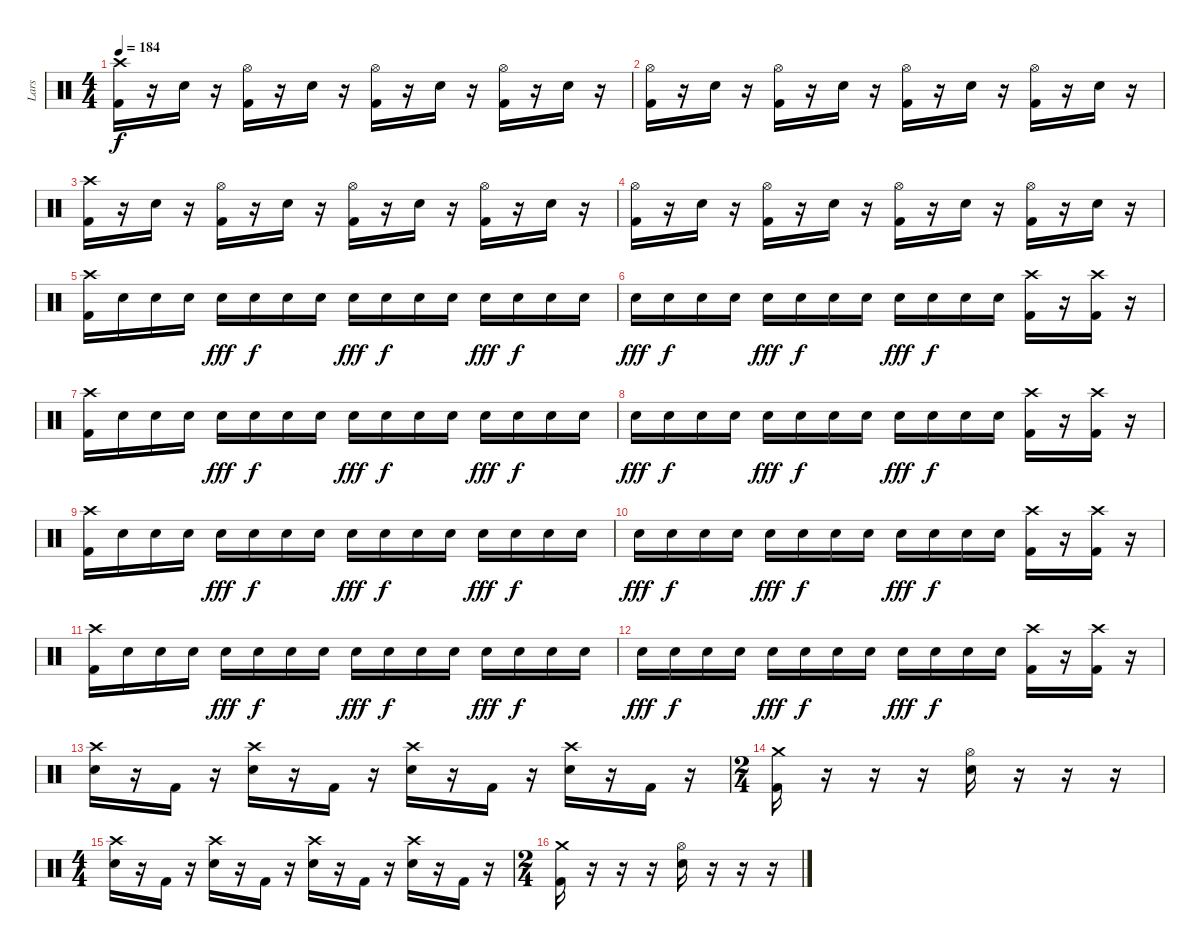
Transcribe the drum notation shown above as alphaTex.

\track ("Lars" "Lars") {instrument percussion}
\staff {score}
\articulation defaults
\ts (4 4)
\tempo 184
\clef neutral
\ks c
("Crash high (hit)" "Kick (hit) 2").16{dy f volume 10} r.16 "Electric Snare (hit)".16 r.16 ("Hi-Hat (open)" "Kick (hit) 2").16 r.16 "Electric Snare (hit)".16 r.16 ("Hi-Hat (open)" "Kick (hit) 2").16 r.16 "Electric Snare (hit)".16 r.16 ("Hi-Hat (open)" "Kick (hit) 2").16 r.16 "Electric Snare (hit)".16 r.16 |
("Hi-Hat (open)" "Kick (hit) 2").16 r.16 "Electric Snare (hit)".16 r.16 ("Hi-Hat (open)" "Kick (hit) 2").16 r.16 "Electric Snare (hit)".16 r.16 ("Hi-Hat (open)" "Kick (hit) 2").16 r.16 "Electric Snare (hit)".16 r.16 ("Hi-Hat (open)" "Kick (hit) 2").16 r.16 "Electric Snare (hit)".16 r.16 |
("Crash high (hit)" "Kick (hit) 2").16 r.16 "Electric Snare (hit)".16 r.16 ("Hi-Hat (open)" "Kick (hit) 2").16 r.16 "Electric Snare (hit)".16 r.16 ("Hi-Hat (open)" "Kick (hit) 2").16 r.16 "Electric Snare (hit)".16 r.16 ("Hi-Hat (open)" "Kick (hit) 2").16 r.16 "Electric Snare (hit)".16 r.16 |
("Hi-Hat (open)" "Kick (hit) 2").16 r.16 "Electric Snare (hit)".16 r.16 ("Hi-Hat (open)" "Kick (hit) 2").16 r.16 "Electric Snare (hit)".16 r.16 ("Hi-Hat (open)" "Kick (hit) 2").16 r.16 "Electric Snare (hit)".16 r.16 ("Hi-Hat (open)" "Kick (hit) 2").16 r.16 "Electric Snare (hit)".16 r.16 |
("Crash high (hit)" "Kick (hit) 2").16 "Electric Snare (hit)".16 "Electric Snare (hit)".16 "Electric Snare (hit)".16 "Electric Snare (hit)".16{dy fff} "Electric Snare (hit)".16{dy f} "Electric Snare (hit)".16 "Electric Snare (hit)".16 "Electric Snare (hit)".16{dy fff} "Electric Snare (hit)".16{dy f} "Electric Snare (hit)".16 "Electric Snare (hit)".16 "Electric Snare (hit)".16{dy fff} "Electric Snare (hit)".16{dy f} "Electric Snare (hit)".16 "Electric Snare (hit)".16 |
"Electric Snare (hit)".16{dy fff} "Electric Snare (hit)".16{dy f} "Electric Snare (hit)".16 "Electric Snare (hit)".16 "Electric Snare (hit)".16{dy fff} "Electric Snare (hit)".16{dy f} "Electric Snare (hit)".16 "Electric Snare (hit)".16 "Electric Snare (hit)".16{dy fff} "Electric Snare (hit)".16{dy f} "Electric Snare (hit)".16 "Electric Snare (hit)".16 ("Crash high (hit)" "Kick (hit) 2").16 r.16 ("Crash high (hit)" "Kick (hit) 2").16 r.16 |
("Crash high (hit)" "Kick (hit) 2").16 "Electric Snare (hit)".16 "Electric Snare (hit)".16 "Electric Snare (hit)".16 "Electric Snare (hit)".16{dy fff} "Electric Snare (hit)".16{dy f} "Electric Snare (hit)".16 "Electric Snare (hit)".16 "Electric Snare (hit)".16{dy fff} "Electric Snare (hit)".16{dy f} "Electric Snare (hit)".16 "Electric Snare (hit)".16 "Electric Snare (hit)".16{dy fff} "Electric Snare (hit)".16{dy f} "Electric Snare (hit)".16 "Electric Snare (hit)".16 |
"Electric Snare (hit)".16{dy fff} "Electric Snare (hit)".16{dy f} "Electric Snare (hit)".16 "Electric Snare (hit)".16 "Electric Snare (hit)".16{dy fff} "Electric Snare (hit)".16{dy f} "Electric Snare (hit)".16 "Electric Snare (hit)".16 "Electric Snare (hit)".16{dy fff} "Electric Snare (hit)".16{dy f} "Electric Snare (hit)".16 "Electric Snare (hit)".16 ("Crash high (hit)" "Kick (hit) 2").16 r.16 ("Crash high (hit)" "Kick (hit) 2").16 r.16 |
("Crash high (hit)" "Kick (hit) 2").16 "Electric Snare (hit)".16 "Electric Snare (hit)".16 "Electric Snare (hit)".16 "Electric Snare (hit)".16{dy fff} "Electric Snare (hit)".16{dy f} "Electric Snare (hit)".16 "Electric Snare (hit)".16 "Electric Snare (hit)".16{dy fff} "Electric Snare (hit)".16{dy f} "Electric Snare (hit)".16 "Electric Snare (hit)".16 "Electric Snare (hit)".16{dy fff} "Electric Snare (hit)".16{dy f} "Electric Snare (hit)".16 "Electric Snare (hit)".16 |
"Electric Snare (hit)".16{dy fff} "Electric Snare (hit)".16{dy f} "Electric Snare (hit)".16 "Electric Snare (hit)".16 "Electric Snare (hit)".16{dy fff} "Electric Snare (hit)".16{dy f} "Electric Snare (hit)".16 "Electric Snare (hit)".16 "Electric Snare (hit)".16{dy fff} "Electric Snare (hit)".16{dy f} "Electric Snare (hit)".16 "Electric Snare (hit)".16 ("Crash high (hit)" "Kick (hit) 2").16 r.16 ("Crash high (hit)" "Kick (hit) 2").16 r.16 |
("Crash high (hit)" "Kick (hit) 2").16 "Electric Snare (hit)".16 "Electric Snare (hit)".16 "Electric Snare (hit)".16 "Electric Snare (hit)".16{dy fff} "Electric Snare (hit)".16{dy f} "Electric Snare (hit)".16 "Electric Snare (hit)".16 "Electric Snare (hit)".16{dy fff} "Electric Snare (hit)".16{dy f} "Electric Snare (hit)".16 "Electric Snare (hit)".16 "Electric Snare (hit)".16{dy fff} "Electric Snare (hit)".16{dy f} "Electric Snare (hit)".16 "Electric Snare (hit)".16 |
"Electric Snare (hit)".16{dy fff} "Electric Snare (hit)".16{dy f} "Electric Snare (hit)".16 "Electric Snare (hit)".16 "Electric Snare (hit)".16{dy fff} "Electric Snare (hit)".16{dy f} "Electric Snare (hit)".16 "Electric Snare (hit)".16 "Electric Snare (hit)".16{dy fff} "Electric Snare (hit)".16{dy f} "Electric Snare (hit)".16 "Electric Snare (hit)".16 ("Crash high (hit)" "Kick (hit) 2").16 r.16 ("Crash high (hit)" "Kick (hit) 2").16 r.16 |
("Crash high (hit)" "Electric Snare (hit)").16 r.16 "Kick (hit) 2".16 r.16 ("Crash high (hit)" "Electric Snare (hit)").16 r.16 "Kick (hit) 2".16 r.16 ("Crash high (hit)" "Electric Snare (hit)").16 r.16 "Kick (hit) 2".16 r.16 ("Crash high (hit)" "Electric Snare (hit)").16 r.16 "Kick (hit) 2".16 r.16 |
\ts (2 4)
("Crash medium (hit)" "Kick (hit) 2").16 r.16 r.16 r.16 ("Electric Snare (hit)" "Hi-Hat (open)").16 r.16 r.16 r.16 |
\ts (4 4)
("Crash high (hit)" "Electric Snare (hit)").16 r.16 "Kick (hit) 2".16 r.16 ("Crash high (hit)" "Electric Snare (hit)").16 r.16 "Kick (hit) 2".16 r.16 ("Crash high (hit)" "Electric Snare (hit)").16 r.16 "Kick (hit) 2".16 r.16 ("Crash high (hit)" "Electric Snare (hit)").16 r.16 "Kick (hit) 2".16 r.16 |
\ts (2 4)
("Crash medium (hit)" "Kick (hit) 2").16 r.16 r.16 r.16 ("Electric Snare (hit)" "Hi-Hat (open)").16 r.16 r.16 r.16
